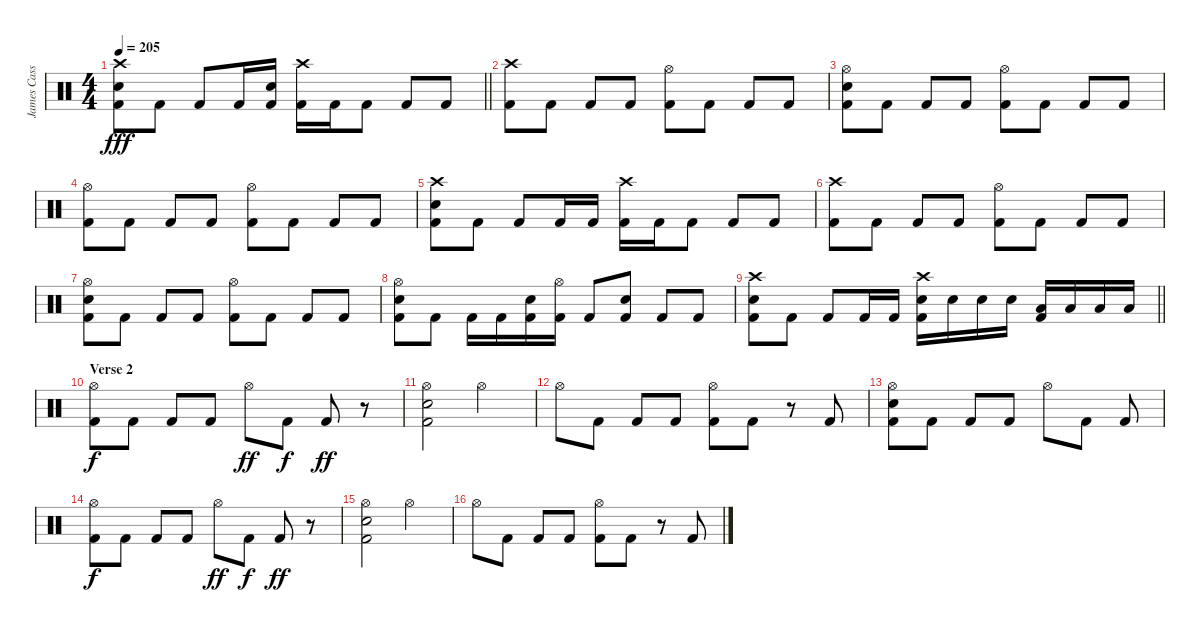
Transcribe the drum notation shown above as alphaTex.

\track ("James Cassels" "James Cass") {instrument percussion}
\staff {score}
\articulation defaults
\ts (4 4)
\tempo 205
\clef neutral
\barLineRight lightlight
\ks c
("Crash high (hit)" "Electric Snare (hit)" "Kick (hit) 2").8{dy fff} "Kick (hit) 2".8 "Kick (hit) 2".8 "Kick (hit) 2".16 ("Electric Snare (hit)" "Kick (hit) 2").16 ("Crash high (hit)" "Kick (hit) 2").16 "Kick (hit) 2".16 "Kick (hit) 2".8 "Kick (hit) 2".8 "Kick (hit) 2".8 |
("Crash high (hit)" "Kick (hit) 2").8 "Kick (hit) 2".8 "Kick (hit) 2".8 "Kick (hit) 2".8 ("Hi-Hat (open)" "Kick (hit) 2").8 "Kick (hit) 2".8 "Kick (hit) 2".8 "Kick (hit) 2".8 |
("Hi-Hat (open)" "Electric Snare (hit)" "Kick (hit) 2").8 "Kick (hit) 2".8 "Kick (hit) 2".8 "Kick (hit) 2".8 ("Hi-Hat (open)" "Kick (hit) 2").8 "Kick (hit) 2".8 "Kick (hit) 2".8 "Kick (hit) 2".8 |
("Hi-Hat (open)" "Kick (hit) 2").8 "Kick (hit) 2".8 "Kick (hit) 2".8 "Kick (hit) 2".8 ("Hi-Hat (open)" "Kick (hit) 2").8 "Kick (hit) 2".8 "Kick (hit) 2".8 "Kick (hit) 2".8 |
("Crash high (hit)" "Electric Snare (hit)" "Kick (hit) 2").8 "Kick (hit) 2".8 "Kick (hit) 2".8 "Kick (hit) 2".16 "Kick (hit) 2".16 ("Crash high (hit)" "Kick (hit) 2").16 "Kick (hit) 2".16 "Kick (hit) 2".8 "Kick (hit) 2".8 "Kick (hit) 2".8 |
("Crash high (hit)" "Kick (hit) 2").8 "Kick (hit) 2".8 "Kick (hit) 2".8 "Kick (hit) 2".8 ("Hi-Hat (open)" "Kick (hit) 2").8 "Kick (hit) 2".8 "Kick (hit) 2".8 "Kick (hit) 2".8 |
("Hi-Hat (open)" "Electric Snare (hit)" "Kick (hit) 2").8 "Kick (hit) 2".8 "Kick (hit) 2".8 "Kick (hit) 2".8 ("Hi-Hat (open)" "Kick (hit) 2").8 "Kick (hit) 2".8 "Kick (hit) 2".8 "Kick (hit) 2".8 |
("Hi-Hat (open)" "Electric Snare (hit)" "Kick (hit) 2").8 "Kick (hit) 2".8 "Kick (hit) 2".16 "Kick (hit) 2".16 ("Electric Snare (hit)" "Kick (hit) 2").16 ("Hi-Hat (open)" "Kick (hit) 2").16 "Kick (hit) 2".8 ("Electric Snare (hit)" "Kick (hit) 2").8 "Kick (hit) 2".8 "Kick (hit) 2".8 |
\barLineRight lightlight
("Crash high (hit)" "Electric Snare (hit)" "Kick (hit) 2").8 "Kick (hit) 2".8 "Kick (hit) 2".8 "Kick (hit) 2".16 "Kick (hit) 2".16 ("Crash high (hit)" "Electric Snare (hit)" "Kick (hit) 2").16 "Electric Snare (hit)".16 "Electric Snare (hit)".16 "Electric Snare (hit)".16 ("Low Floor Tom (hit)" "Kick (hit) 2").16 "Low Floor Tom (hit)".16 "Low Floor Tom (hit)".16 "Low Floor Tom (hit)".16 |
\section ("" "Verse 2")
("Hi-Hat (open)" "Kick (hit) 2").8{dy f} "Kick (hit) 2".8 "Kick (hit) 2".8 "Kick (hit) 2".8 "Hi-Hat (open)".8{dy ff} "Kick (hit) 2".8{dy f} "Kick (hit) 2".8{dy ff} r.8 |
("Hi-Hat (open)" "Electric Snare (hit)" "Kick (hit) 2").2 "Hi-Hat (open)".2 |
"Hi-Hat (open)".8 "Kick (hit) 2".8 "Kick (hit) 2".8 "Kick (hit) 2".8 ("Hi-Hat (open)" "Kick (hit) 2").8 "Kick (hit) 2".8 r.8 "Kick (hit) 2".8 |
("Hi-Hat (open)" "Electric Snare (hit)" "Kick (hit) 2").8 "Kick (hit) 2".8 "Kick (hit) 2".8 "Kick (hit) 2".8 "Hi-Hat (open)".8 "Kick (hit) 2".8 "Kick (hit) 2".8 |
("Hi-Hat (open)" "Kick (hit) 2").8{dy f} "Kick (hit) 2".8 "Kick (hit) 2".8 "Kick (hit) 2".8 "Hi-Hat (open)".8{dy ff} "Kick (hit) 2".8{dy f} "Kick (hit) 2".8{dy ff} r.8 |
("Hi-Hat (open)" "Electric Snare (hit)" "Kick (hit) 2").2 "Hi-Hat (open)".2 |
"Hi-Hat (open)".8 "Kick (hit) 2".8 "Kick (hit) 2".8 "Kick (hit) 2".8 ("Hi-Hat (open)" "Kick (hit) 2").8 "Kick (hit) 2".8 r.8 "Kick (hit) 2".8
